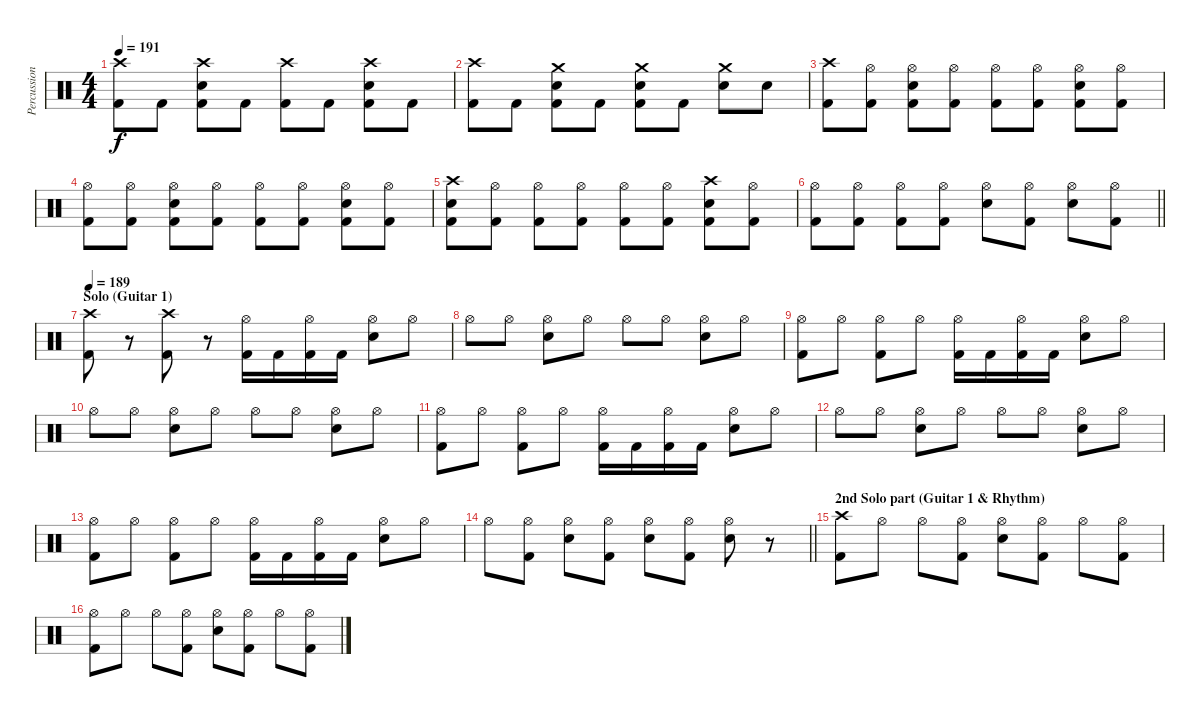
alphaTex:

\track ("Percussion" "Percussion") {instrument percussion}
\staff {score}
\articulation defaults
\ts (4 4)
\tempo 191
\clef neutral
\ks c
("Crash high (hit)" "Kick (hit) 2").8{dy f} "Kick (hit) 2".8 ("Crash high (hit)" "Electric Snare (hit)" "Kick (hit) 2").8 "Kick (hit) 2".8 ("Crash high (hit)" "Kick (hit) 2").8 "Kick (hit) 2".8 ("Crash high (hit)" "Electric Snare (hit)" "Kick (hit) 2").8 "Kick (hit) 2".8 |
("Crash high (hit)" "Kick (hit) 2").8 "Kick (hit) 2".8 ("Crash medium (hit)" "Electric Snare (hit)" "Kick (hit) 2").8 "Kick (hit) 2".8 ("Crash medium (hit)" "Electric Snare (hit)" "Kick (hit) 2").8 "Kick (hit) 2".8 ("Crash medium (hit)" "Electric Snare (hit)").8 "Electric Snare (hit)".8 |
("Crash high (hit)" "Kick (hit) 2").8 ("Hi-Hat (open)" "Kick (hit) 2").8 ("Hi-Hat (open)" "Electric Snare (hit)" "Kick (hit) 2").8 ("Hi-Hat (open)" "Kick (hit) 2").8 ("Hi-Hat (open)" "Kick (hit) 2").8 ("Hi-Hat (open)" "Kick (hit) 2").8 ("Hi-Hat (open)" "Electric Snare (hit)" "Kick (hit) 2").8 ("Hi-Hat (open)" "Kick (hit) 2").8 |
("Hi-Hat (open)" "Kick (hit) 2").8 ("Hi-Hat (open)" "Kick (hit) 2").8 ("Hi-Hat (open)" "Electric Snare (hit)" "Kick (hit) 2").8 ("Hi-Hat (open)" "Kick (hit) 2").8 ("Hi-Hat (open)" "Kick (hit) 2").8 ("Hi-Hat (open)" "Kick (hit) 2").8 ("Hi-Hat (open)" "Electric Snare (hit)" "Kick (hit) 2").8 ("Hi-Hat (open)" "Kick (hit) 2").8 |
("Crash high (hit)" "Electric Snare (hit)" "Kick (hit) 2").8 ("Hi-Hat (open)" "Kick (hit) 2").8 ("Hi-Hat (open)" "Kick (hit) 2").8 ("Hi-Hat (open)" "Kick (hit) 2").8 ("Hi-Hat (open)" "Kick (hit) 2").8 ("Hi-Hat (open)" "Kick (hit) 2").8 ("Crash high (hit)" "Electric Snare (hit)" "Kick (hit) 2").8 ("Hi-Hat (open)" "Kick (hit) 2").8 |
\barLineRight lightlight
("Hi-Hat (open)" "Kick (hit) 2").8 ("Hi-Hat (open)" "Kick (hit) 2").8 ("Hi-Hat (open)" "Kick (hit) 2").8 ("Hi-Hat (open)" "Kick (hit) 2").8 ("Hi-Hat (open)" "Electric Snare (hit)").8 ("Hi-Hat (open)" "Kick (hit) 2").8 ("Hi-Hat (open)" "Electric Snare (hit)").8 ("Hi-Hat (open)" "Kick (hit) 2").8 |
\section ("" "Solo (Guitar 1)")
\tempo 189
("Crash high (hit)" "Kick (hit) 2").8 r.8 ("Crash high (hit)" "Kick (hit) 2").8 r.8 ("Hi-Hat (open)" "Kick (hit) 2").16 "Kick (hit) 2".16 ("Hi-Hat (open)" "Kick (hit) 2").16 "Kick (hit) 2".16 ("Hi-Hat (open)" "Electric Snare (hit)").8 "Hi-Hat (open)".8 |
"Hi-Hat (open)".8 "Hi-Hat (open)".8 ("Hi-Hat (open)" "Electric Snare (hit)").8 "Hi-Hat (open)".8 "Hi-Hat (open)".8 "Hi-Hat (open)".8 ("Hi-Hat (open)" "Electric Snare (hit)").8 "Hi-Hat (open)".8 |
("Hi-Hat (open)" "Kick (hit) 2").8 "Hi-Hat (open)".8 ("Hi-Hat (open)" "Kick (hit) 2").8 "Hi-Hat (open)".8 ("Hi-Hat (open)" "Kick (hit) 2").16 "Kick (hit) 2".16 ("Hi-Hat (open)" "Kick (hit) 2").16 "Kick (hit) 2".16 ("Hi-Hat (open)" "Electric Snare (hit)").8 "Hi-Hat (open)".8 |
"Hi-Hat (open)".8 "Hi-Hat (open)".8 ("Hi-Hat (open)" "Electric Snare (hit)").8 "Hi-Hat (open)".8 "Hi-Hat (open)".8 "Hi-Hat (open)".8 ("Hi-Hat (open)" "Electric Snare (hit)").8 "Hi-Hat (open)".8 |
("Hi-Hat (open)" "Kick (hit) 2").8 "Hi-Hat (open)".8 ("Hi-Hat (open)" "Kick (hit) 2").8 "Hi-Hat (open)".8 ("Hi-Hat (open)" "Kick (hit) 2").16 "Kick (hit) 2".16 ("Hi-Hat (open)" "Kick (hit) 2").16 "Kick (hit) 2".16 ("Hi-Hat (open)" "Electric Snare (hit)").8 "Hi-Hat (open)".8 |
"Hi-Hat (open)".8 "Hi-Hat (open)".8 ("Hi-Hat (open)" "Electric Snare (hit)").8 "Hi-Hat (open)".8 "Hi-Hat (open)".8 "Hi-Hat (open)".8 ("Hi-Hat (open)" "Electric Snare (hit)").8 "Hi-Hat (open)".8 |
("Hi-Hat (open)" "Kick (hit) 2").8 "Hi-Hat (open)".8 ("Hi-Hat (open)" "Kick (hit) 2").8 "Hi-Hat (open)".8 ("Hi-Hat (open)" "Kick (hit) 2").16 "Kick (hit) 2".16 ("Hi-Hat (open)" "Kick (hit) 2").16 "Kick (hit) 2".16 ("Hi-Hat (open)" "Electric Snare (hit)").8 "Hi-Hat (open)".8 |
\barLineRight lightlight "Hi-Hat (open)".8
("Hi-Hat (open)" "Kick (hit) 2").8 ("Hi-Hat (open)" "Electric Snare (hit)").8 ("Hi-Hat (open)" "Kick (hit) 2").8 ("Hi-Hat (open)" "Electric Snare (hit)").8 ("Hi-Hat (open)" "Kick (hit) 2").8 ("Hi-Hat (open)" "Electric Snare (hit)").8 r.8 |
\section ("" "2nd Solo part (Guitar 1 & Rhythm)")
("Crash high (hit)" "Kick (hit) 2").8 "Hi-Hat (open)".8 "Hi-Hat (open)".8 ("Hi-Hat (open)" "Kick (hit) 2").8 ("Hi-Hat (open)" "Electric Snare (hit)").8 ("Hi-Hat (open)" "Kick (hit) 2").8 "Hi-Hat (open)".8 ("Hi-Hat (open)" "Kick (hit) 2").8 |
("Hi-Hat (open)" "Kick (hit) 2").8 "Hi-Hat (open)".8 "Hi-Hat (open)".8 ("Hi-Hat (open)" "Kick (hit) 2").8 ("Hi-Hat (open)" "Electric Snare (hit)").8 ("Hi-Hat (open)" "Kick (hit) 2").8 "Hi-Hat (open)".8 ("Hi-Hat (open)" "Kick (hit) 2").8
